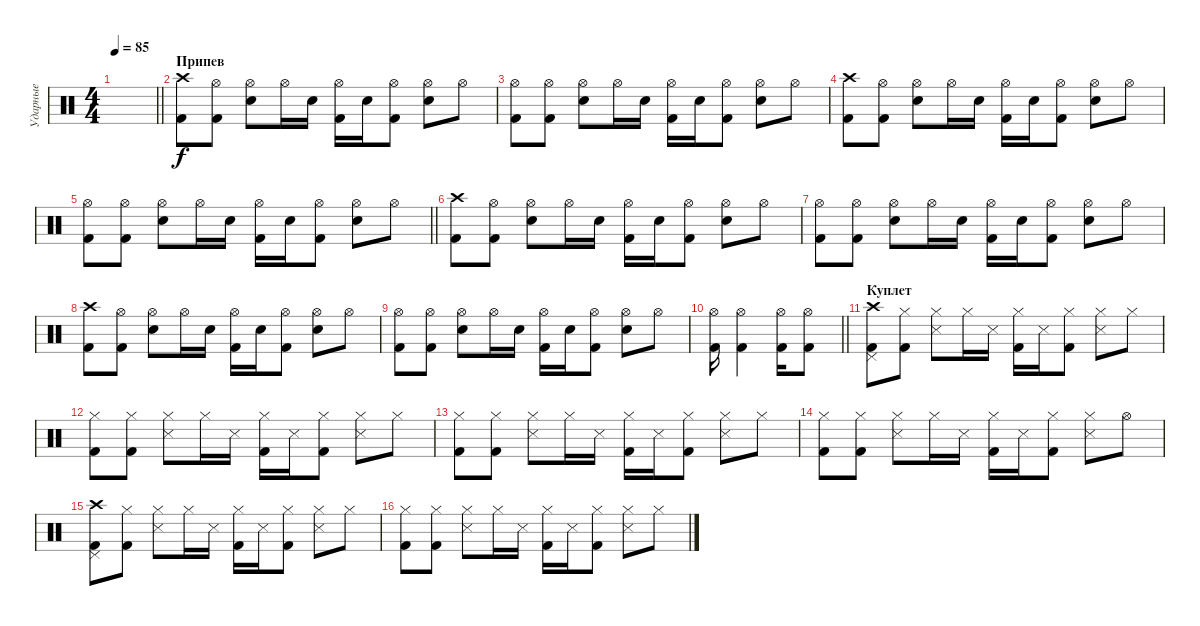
\track ("Ударные" "Ударные") {instrument percussion}
\staff {score}
\articulation defaults
\ts (4 4)
\tempo 85
\clef neutral
\barLineRight lightlight
\ks c
|
\section ("" "Припев")
("Crash high (hit)" "Kick (hit) 2").8 ("Hi-Hat (open)" "Kick (hit) 2").8 ("Hi-Hat (open)" "Electric Snare (hit)").8 "Hi-Hat (open)".16 "Electric Snare (hit)".16 ("Hi-Hat (open)" "Kick (hit) 2").16 "Electric Snare (hit)".16 ("Hi-Hat (open)" "Kick (hit) 2").8 ("Hi-Hat (open)" "Electric Snare (hit)").8 "Hi-Hat (open)".8 |
("Hi-Hat (open)" "Kick (hit) 2").8 ("Hi-Hat (open)" "Kick (hit) 2").8 ("Hi-Hat (open)" "Electric Snare (hit)").8 "Hi-Hat (open)".16 "Electric Snare (hit)".16 ("Hi-Hat (open)" "Kick (hit) 2").16 "Electric Snare (hit)".16 ("Hi-Hat (open)" "Kick (hit) 2").8 ("Hi-Hat (open)" "Electric Snare (hit)").8 "Hi-Hat (open)".8 |
("Crash high (hit)" "Kick (hit) 2").8 ("Hi-Hat (open)" "Kick (hit) 2").8 ("Hi-Hat (open)" "Electric Snare (hit)").8 "Hi-Hat (open)".16 "Electric Snare (hit)".16 ("Hi-Hat (open)" "Kick (hit) 2").16 "Electric Snare (hit)".16 ("Hi-Hat (open)" "Kick (hit) 2").8 ("Hi-Hat (open)" "Electric Snare (hit)").8 "Hi-Hat (open)".8 |
\barLineRight lightlight
("Hi-Hat (open)" "Kick (hit) 2").8 ("Hi-Hat (open)" "Kick (hit) 2").8 ("Hi-Hat (open)" "Electric Snare (hit)").8 "Hi-Hat (open)".16 "Electric Snare (hit)".16 ("Hi-Hat (open)" "Kick (hit) 2").16 "Electric Snare (hit)".16 ("Hi-Hat (open)" "Kick (hit) 2").8 ("Hi-Hat (open)" "Electric Snare (hit)").8 "Hi-Hat (open)".8 |
\section ("" "")
("Crash high (hit)" "Kick (hit) 2").8 ("Hi-Hat (open)" "Kick (hit) 2").8 ("Hi-Hat (open)" "Electric Snare (hit)").8 "Hi-Hat (open)".16 "Electric Snare (hit)".16 ("Hi-Hat (open)" "Kick (hit) 2").16 "Electric Snare (hit)".16 ("Hi-Hat (open)" "Kick (hit) 2").8 ("Hi-Hat (open)" "Electric Snare (hit)").8 "Hi-Hat (open)".8 |
("Hi-Hat (open)" "Kick (hit) 2").8 ("Hi-Hat (open)" "Kick (hit) 2").8 ("Hi-Hat (open)" "Electric Snare (hit)").8 "Hi-Hat (open)".16 "Electric Snare (hit)".16 ("Hi-Hat (open)" "Kick (hit) 2").16 "Electric Snare (hit)".16 ("Hi-Hat (open)" "Kick (hit) 2").8 ("Hi-Hat (open)" "Electric Snare (hit)").8 "Hi-Hat (open)".8 |
("Crash high (hit)" "Kick (hit) 2").8 ("Hi-Hat (open)" "Kick (hit) 2").8 ("Hi-Hat (open)" "Electric Snare (hit)").8 "Hi-Hat (open)".16 "Electric Snare (hit)".16 ("Hi-Hat (open)" "Kick (hit) 2").16 "Electric Snare (hit)".16 ("Hi-Hat (open)" "Kick (hit) 2").8 ("Hi-Hat (open)" "Electric Snare (hit)").8 "Hi-Hat (open)".8 |
("Hi-Hat (open)" "Kick (hit) 2").8 ("Hi-Hat (open)" "Kick (hit) 2").8 ("Hi-Hat (open)" "Electric Snare (hit)").8 "Hi-Hat (open)".16 "Electric Snare (hit)".16 ("Hi-Hat (open)" "Kick (hit) 2").16 "Electric Snare (hit)".16 ("Hi-Hat (open)" "Kick (hit) 2").8 ("Hi-Hat (open)" "Electric Snare (hit)").8 "Hi-Hat (open)".8 |
\barLineRight lightlight
("Hi-Hat (open)" "Kick (hit) 2").16 ("Hi-Hat (open)" "Kick (hit) 2").4 ("Hi-Hat (open)" "Kick (hit) 2").16 ("Hi-Hat (open)" "Kick (hit) 2").8 |
\section ("" "Куплет")
("Crash high (hit)" "Pedal Hi-Hat (hit)" "Kick (hit) 2").8 ("Hi-Hat (closed)" "Kick (hit) 2").8 ("Hi-Hat (closed)" "Snare (side stick) 3").8 "Hi-Hat (closed)".16 "Snare (side stick) 3".16 ("Hi-Hat (closed)" "Kick (hit) 2").16 "Snare (side stick) 3".16 ("Hi-Hat (closed)" "Kick (hit) 2").8 ("Hi-Hat (closed)" "Snare (side stick) 3").8 "Hi-Hat (closed)".8 |
("Hi-Hat (closed)" "Kick (hit) 2").8 ("Hi-Hat (closed)" "Kick (hit) 2").8 ("Hi-Hat (closed)" "Snare (side stick) 3").8 "Hi-Hat (closed)".16 "Snare (side stick) 3".16 ("Hi-Hat (closed)" "Kick (hit) 2").16 "Snare (side stick) 3".16 ("Hi-Hat (closed)" "Kick (hit) 2").8 ("Hi-Hat (closed)" "Snare (side stick) 3").8 "Hi-Hat (closed)".8 |
("Hi-Hat (closed)" "Kick (hit) 2").8 ("Hi-Hat (closed)" "Kick (hit) 2").8 ("Hi-Hat (closed)" "Snare (side stick) 3").8 "Hi-Hat (closed)".16 "Snare (side stick) 3".16 ("Hi-Hat (closed)" "Kick (hit) 2").16 "Snare (side stick) 3".16 ("Hi-Hat (closed)" "Kick (hit) 2").8 ("Hi-Hat (closed)" "Snare (side stick) 3").8 "Hi-Hat (closed)".8 |
("Hi-Hat (closed)" "Kick (hit) 2").8 ("Hi-Hat (closed)" "Kick (hit) 2").8 ("Hi-Hat (closed)" "Snare (side stick) 3").8 "Hi-Hat (closed)".16 "Snare (side stick) 3".16 ("Hi-Hat (closed)" "Kick (hit) 2").16 "Snare (side stick) 3".16 ("Hi-Hat (closed)" "Kick (hit) 2").8 ("Hi-Hat (closed)" "Snare (side stick) 3").8 "Hi-Hat (open)".8 |
("Crash high (hit)" "Pedal Hi-Hat (hit)" "Kick (hit) 2").8 ("Hi-Hat (closed)" "Kick (hit) 2").8 ("Hi-Hat (closed)" "Snare (side stick) 3").8 "Hi-Hat (closed)".16 "Snare (side stick) 3".16 ("Hi-Hat (closed)" "Kick (hit) 2").16 "Snare (side stick) 3".16 ("Hi-Hat (closed)" "Kick (hit) 2").8 ("Hi-Hat (closed)" "Snare (side stick) 3").8 "Hi-Hat (closed)".8 |
("Hi-Hat (closed)" "Kick (hit) 2").8 ("Hi-Hat (closed)" "Kick (hit) 2").8 ("Hi-Hat (closed)" "Snare (side stick) 3").8 "Hi-Hat (closed)".16 "Snare (side stick) 3".16 ("Hi-Hat (closed)" "Kick (hit) 2").16 "Snare (side stick) 3".16 ("Hi-Hat (closed)" "Kick (hit) 2").8 ("Hi-Hat (closed)" "Snare (side stick) 3").8 "Hi-Hat (closed)".8
